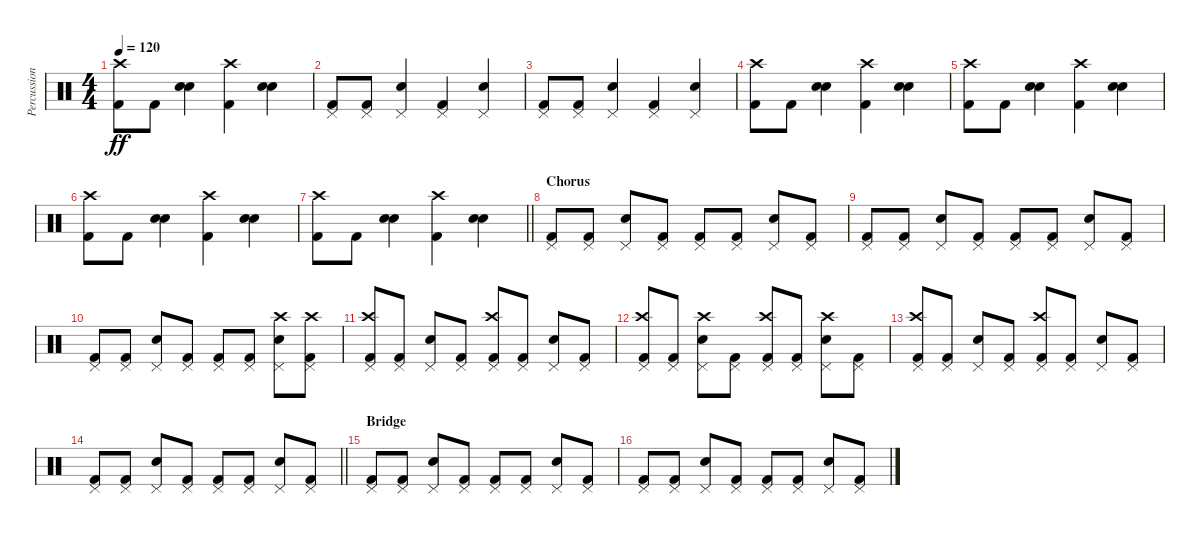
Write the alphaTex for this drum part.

\track ("Percussion" "Percussion") {instrument percussion}
\staff {score}
\articulation defaults
\ts (4 4)
\tempo 120
\clef neutral
\ks c
("Kick (hit) 2" "Crash high (hit)").8{dy ff} "Kick (hit) 2".8 ("Snare (hit) 2" "Snare (hit) 2").4 ("Kick (hit) 2" "Crash high (hit)").4 ("Snare (hit) 2" "Snare (hit) 2").4 |
("Kick (hit) 2" "Pedal Hi-Hat (hit)").8 ("Kick (hit) 2" "Pedal Hi-Hat (hit)").8 ("Snare (hit) 2" "Pedal Hi-Hat (hit)").4 ("Kick (hit) 2" "Pedal Hi-Hat (hit)").4 ("Snare (hit) 2" "Pedal Hi-Hat (hit)").4 |
("Kick (hit) 2" "Pedal Hi-Hat (hit)").8 ("Kick (hit) 2" "Pedal Hi-Hat (hit)").8 ("Snare (hit) 2" "Pedal Hi-Hat (hit)").4 ("Kick (hit) 2" "Pedal Hi-Hat (hit)").4 ("Snare (hit) 2" "Pedal Hi-Hat (hit)").4 |
("Kick (hit) 2" "Crash high (hit)").8 "Kick (hit) 2".8 ("Snare (hit) 2" "Snare (hit) 2").4 ("Kick (hit) 2" "Crash high (hit)").4 ("Snare (hit) 2" "Snare (hit) 2").4 |
("Kick (hit) 2" "Crash high (hit)").8 "Kick (hit) 2".8 ("Snare (hit) 2" "Snare (hit) 2").4 ("Kick (hit) 2" "Crash high (hit)").4 ("Snare (hit) 2" "Snare (hit) 2").4 |
("Kick (hit) 2" "Crash high (hit)").8 "Kick (hit) 2".8 ("Snare (hit) 2" "Snare (hit) 2").4 ("Kick (hit) 2" "Crash high (hit)").4 ("Snare (hit) 2" "Snare (hit) 2").4 |
\barLineRight lightlight
("Kick (hit) 2" "Crash high (hit)").8 "Kick (hit) 2".8 ("Snare (hit) 2" "Snare (hit) 2").4 ("Kick (hit) 2" "Crash high (hit)").4 ("Snare (hit) 2" "Snare (hit) 2").4 |
\section ("" "Chorus")
("Kick (hit) 2" "Pedal Hi-Hat (hit)").8 ("Kick (hit) 2" "Pedal Hi-Hat (hit)").8 ("Snare (hit) 2" "Pedal Hi-Hat (hit)").8 ("Kick (hit) 2" "Pedal Hi-Hat (hit)").8 ("Kick (hit) 2" "Pedal Hi-Hat (hit)").8 ("Kick (hit) 2" "Pedal Hi-Hat (hit)").8 ("Snare (hit) 2" "Pedal Hi-Hat (hit)").8 ("Kick (hit) 2" "Pedal Hi-Hat (hit)").8 |
("Kick (hit) 2" "Pedal Hi-Hat (hit)").8 ("Kick (hit) 2" "Pedal Hi-Hat (hit)").8 ("Snare (hit) 2" "Pedal Hi-Hat (hit)").8 ("Kick (hit) 2" "Pedal Hi-Hat (hit)").8 ("Kick (hit) 2" "Pedal Hi-Hat (hit)").8 ("Kick (hit) 2" "Pedal Hi-Hat (hit)").8 ("Snare (hit) 2" "Pedal Hi-Hat (hit)").8 ("Kick (hit) 2" "Pedal Hi-Hat (hit)").8 |
("Kick (hit) 2" "Pedal Hi-Hat (hit)").8 ("Kick (hit) 2" "Pedal Hi-Hat (hit)").8 ("Snare (hit) 2" "Pedal Hi-Hat (hit)").8 ("Kick (hit) 2" "Pedal Hi-Hat (hit)").8 ("Kick (hit) 2" "Pedal Hi-Hat (hit)").8 ("Kick (hit) 2" "Pedal Hi-Hat (hit)").8 ("Snare (hit) 2" "Pedal Hi-Hat (hit)" "Crash high (hit)").8 ("Kick (hit) 2" "Pedal Hi-Hat (hit)" "Crash high (hit)").8 |
("Kick (hit) 2" "Pedal Hi-Hat (hit)" "Crash high (hit)").8 ("Kick (hit) 2" "Pedal Hi-Hat (hit)").8 ("Snare (hit) 2" "Pedal Hi-Hat (hit)").8 ("Kick (hit) 2" "Pedal Hi-Hat (hit)").8 ("Kick (hit) 2" "Pedal Hi-Hat (hit)" "Crash high (hit)").8 ("Kick (hit) 2" "Pedal Hi-Hat (hit)").8 ("Snare (hit) 2" "Pedal Hi-Hat (hit)").8 ("Kick (hit) 2" "Pedal Hi-Hat (hit)").8 |
("Kick (hit) 2" "Pedal Hi-Hat (hit)" "Crash high (hit)").8 ("Kick (hit) 2" "Pedal Hi-Hat (hit)").8 ("Snare (hit) 2" "Pedal Hi-Hat (hit)" "Crash high (hit)").8 ("Kick (hit) 2" "Pedal Hi-Hat (hit)").8 ("Kick (hit) 2" "Pedal Hi-Hat (hit)" "Crash high (hit)").8 ("Kick (hit) 2" "Pedal Hi-Hat (hit)").8 ("Snare (hit) 2" "Pedal Hi-Hat (hit)" "Crash high (hit)").8 ("Kick (hit) 2" "Pedal Hi-Hat (hit)").8 |
("Kick (hit) 2" "Pedal Hi-Hat (hit)" "Crash high (hit)").8 ("Kick (hit) 2" "Pedal Hi-Hat (hit)").8 ("Snare (hit) 2" "Pedal Hi-Hat (hit)").8 ("Kick (hit) 2" "Pedal Hi-Hat (hit)").8 ("Kick (hit) 2" "Pedal Hi-Hat (hit)" "Crash high (hit)").8 ("Kick (hit) 2" "Pedal Hi-Hat (hit)").8 ("Snare (hit) 2" "Pedal Hi-Hat (hit)").8 ("Kick (hit) 2" "Pedal Hi-Hat (hit)").8 |
\barLineRight lightlight
("Kick (hit) 2" "Pedal Hi-Hat (hit)").8 ("Kick (hit) 2" "Pedal Hi-Hat (hit)").8 ("Snare (hit) 2" "Pedal Hi-Hat (hit)").8 ("Kick (hit) 2" "Pedal Hi-Hat (hit)").8 ("Kick (hit) 2" "Pedal Hi-Hat (hit)").8 ("Kick (hit) 2" "Pedal Hi-Hat (hit)").8 ("Snare (hit) 2" "Pedal Hi-Hat (hit)").8 ("Kick (hit) 2" "Pedal Hi-Hat (hit)").8 |
\section ("" "Bridge")
("Kick (hit) 2" "Pedal Hi-Hat (hit)").8 ("Kick (hit) 2" "Pedal Hi-Hat (hit)").8 ("Snare (hit) 2" "Pedal Hi-Hat (hit)").8 ("Kick (hit) 2" "Pedal Hi-Hat (hit)").8 ("Kick (hit) 2" "Pedal Hi-Hat (hit)").8 ("Kick (hit) 2" "Pedal Hi-Hat (hit)").8 ("Snare (hit) 2" "Pedal Hi-Hat (hit)").8 ("Kick (hit) 2" "Pedal Hi-Hat (hit)").8 |
("Kick (hit) 2" "Pedal Hi-Hat (hit)").8 ("Kick (hit) 2" "Pedal Hi-Hat (hit)").8 ("Snare (hit) 2" "Pedal Hi-Hat (hit)").8 ("Kick (hit) 2" "Pedal Hi-Hat (hit)").8 ("Kick (hit) 2" "Pedal Hi-Hat (hit)").8 ("Kick (hit) 2" "Pedal Hi-Hat (hit)").8 ("Snare (hit) 2" "Pedal Hi-Hat (hit)").8 ("Kick (hit) 2" "Pedal Hi-Hat (hit)").8
